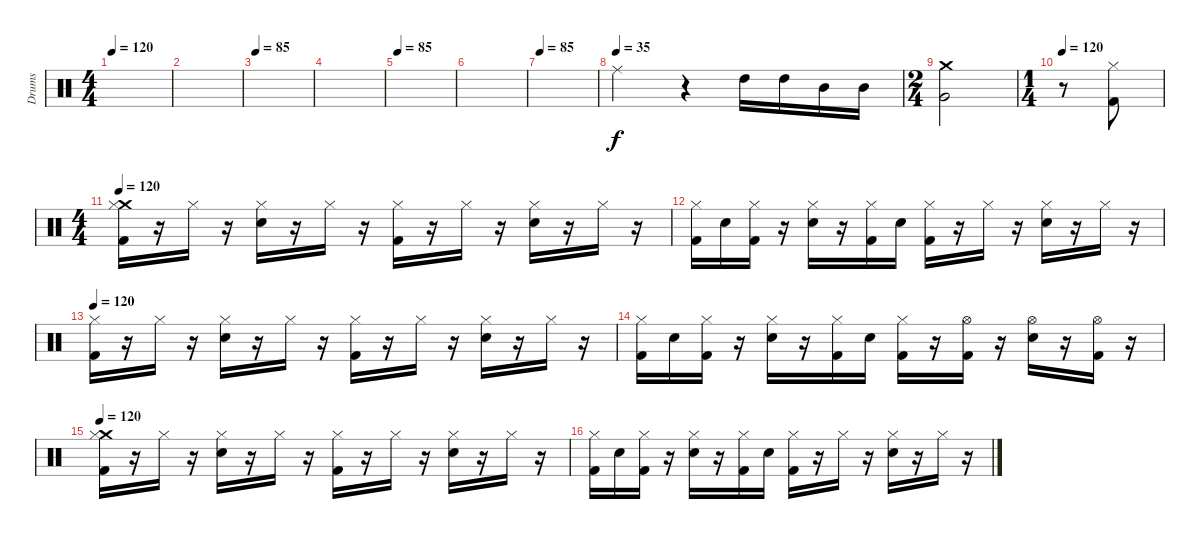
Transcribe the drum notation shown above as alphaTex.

\track ("Drums" "Drums") {instrument percussion}
\staff {score}
\articulation defaults
\ts (4 4)
\tempo 120
\tempo 85
\tempo 120
\clef neutral
\ks c
|
|
\tempo 85
|
|
\tempo 85
|
|
\tempo 85
|
\tempo (35)
"Ride (middle)".2 r.4 "High Tom (hit)".16 "High Tom (hit)".16 "Mid Tom (hit)".16 "Mid Tom (hit)".16 |
\ts (2 4)
("Crash medium (hit)" "Very Low Tom (hit)").2 |
\ts (1 4)
\tempo 120
r.8 ("Hi-Hat (closed)" "Kick (hit) 2").8 |
\ts (4 4)
\tempo 120
("Crash medium (hit)" "Hi-Hat (closed)" "Kick (hit) 2").16 r.16 "Hi-Hat (closed)".16 r.16 ("Hi-Hat (closed)" "Electric Snare (hit)").16 r.16 "Hi-Hat (closed)".16 r.16 ("Hi-Hat (closed)" "Kick (hit) 2").16 r.16 "Hi-Hat (closed)".16 r.16 ("Hi-Hat (closed)" "Electric Snare (hit)").16 r.16 "Hi-Hat (closed)".16 r.16 |
("Hi-Hat (closed)" "Kick (hit) 2").16 "Electric Snare (hit)".16 ("Hi-Hat (closed)" "Kick (hit) 2").16 r.16 ("Hi-Hat (closed)" "Electric Snare (hit)").16 r.16 ("Hi-Hat (closed)" "Kick (hit) 2").16 "Electric Snare (hit)".16 ("Hi-Hat (closed)" "Kick (hit) 2").16 r.16 "Hi-Hat (closed)".16 r.16 ("Hi-Hat (closed)" "Electric Snare (hit)").16 r.16 "Hi-Hat (closed)".16 r.16 |
\tempo 120
("Hi-Hat (closed)" "Kick (hit) 2").16 r.16 "Hi-Hat (closed)".16 r.16 ("Hi-Hat (closed)" "Electric Snare (hit)").16 r.16 "Hi-Hat (closed)".16 r.16 ("Hi-Hat (closed)" "Kick (hit) 2").16 r.16 "Hi-Hat (closed)".16 r.16 ("Hi-Hat (closed)" "Electric Snare (hit)").16 r.16 "Hi-Hat (closed)".16 r.16 |
("Hi-Hat (closed)" "Kick (hit) 2").16 "Electric Snare (hit)".16 ("Hi-Hat (closed)" "Kick (hit) 2").16 r.16 ("Hi-Hat (closed)" "Electric Snare (hit)").16 r.16 ("Hi-Hat (closed)" "Kick (hit) 2").16 "Electric Snare (hit)".16 ("Hi-Hat (closed)" "Kick (hit) 2").16 r.16 ("Hi-Hat (open)" "Kick (hit) 2").16 r.16 ("Hi-Hat (open)" "Electric Snare (hit)").16 r.16 ("Hi-Hat (open)" "Kick (hit) 2").16 r.16 |
\tempo 120
("Crash medium (hit)" "Hi-Hat (closed)" "Kick (hit) 2").16 r.16 "Hi-Hat (closed)".16 r.16 ("Hi-Hat (closed)" "Electric Snare (hit)").16 r.16 "Hi-Hat (closed)".16 r.16 ("Hi-Hat (closed)" "Kick (hit) 2").16 r.16 "Hi-Hat (closed)".16 r.16 ("Hi-Hat (closed)" "Electric Snare (hit)").16 r.16 "Hi-Hat (closed)".16 r.16 |
("Hi-Hat (closed)" "Kick (hit) 2").16 "Electric Snare (hit)".16 ("Hi-Hat (closed)" "Kick (hit) 2").16 r.16 ("Hi-Hat (closed)" "Electric Snare (hit)").16 r.16 ("Hi-Hat (closed)" "Kick (hit) 2").16 "Electric Snare (hit)".16 ("Hi-Hat (closed)" "Kick (hit) 2").16 r.16 "Hi-Hat (closed)".16 r.16 ("Hi-Hat (closed)" "Electric Snare (hit)").16 r.16 "Hi-Hat (closed)".16 r.16
